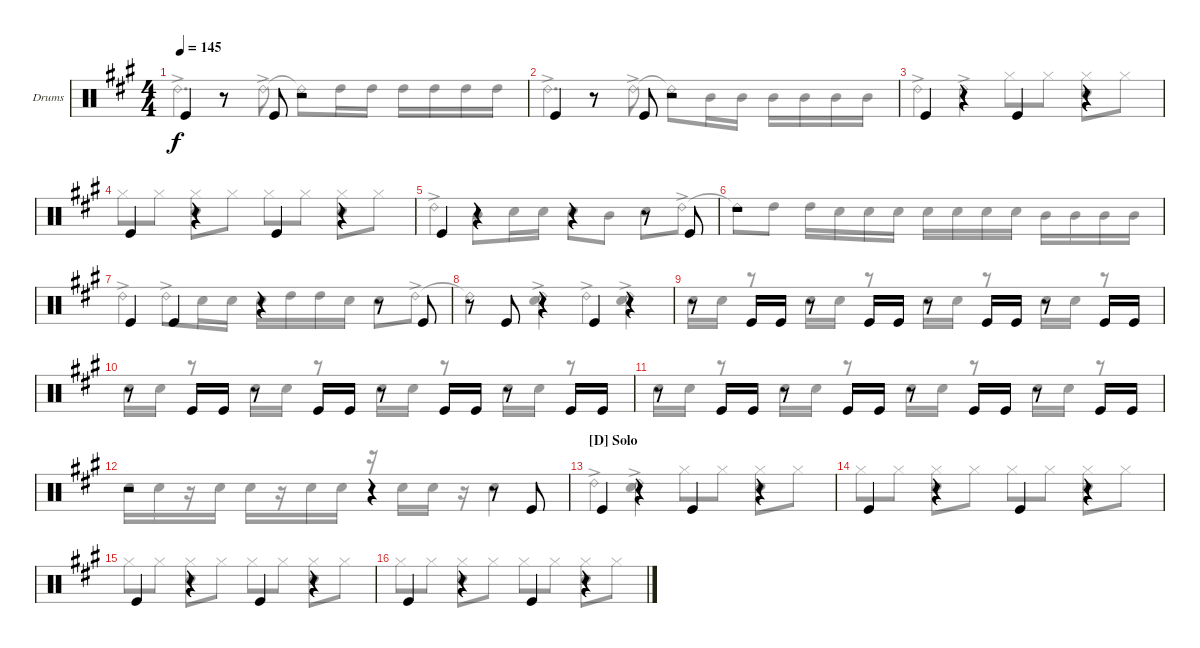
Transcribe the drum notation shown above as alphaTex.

\bracketExtendMode groupsimilarinstruments
\firstSystemTrackNameOrientation horizontal
\otherSystemsTrackNameOrientation horizontal
\track ("Drumkit" "Drums") {instrument percussion}
\staff {score}
\articulation defaults
\voice
\ts (4 4)
\tempo 145
\clef neutral
\scale
1.05801
\ks a "Kick (hit)".4{dy f}
r.8 "Kick (hit)".8 r.2 |
\scale
0.941992 "Kick (hit)".4 r.8 "Kick (hit)".8 r.2 |
\scale
1.05801 "Kick (hit)".4 r.4 "Kick (hit)".4 r.4 |
\scale
0.941992 "Kick (hit)".4 r.4 "Kick (hit)".4 r.4 |
\scale
1.05801 "Kick (hit)".4 r.4 r.4 r.8 "Kick (hit)".8 |
\scale
0.941992 r.1 |
\scale
1.05801 "Kick (hit)".4 "Kick (hit)".4 r.4 r.8 "Kick (hit)".8 |
\scale
0.941992 r.8 "Kick (hit)".8 r.4 "Kick (hit)".4 r.4 |
\scale
1.05801 r.8 "Kick (hit)".16 "Kick (hit)".16 r.8 "Kick (hit)".16 "Kick (hit)".16 r.8 "Kick (hit)".16 "Kick (hit)".16 r.8 "Kick (hit)".16 "Kick (hit)".16 |
\scale
0.941992 r.8 "Kick (hit)".16 "Kick (hit)".16 r.8 "Kick (hit)".16 "Kick (hit)".16 r.8 "Kick (hit)".16 "Kick (hit)".16 r.8 "Kick (hit)".16 "Kick (hit)".16 |
\scale
1.05801 r.8 "Kick (hit)".16 "Kick (hit)".16 r.8 "Kick (hit)".16 "Kick (hit)".16 r.8 "Kick (hit)".16 "Kick (hit)".16 r.8 "Kick (hit)".16 "Kick (hit)".16 |
\scale
0.941992 r.2 r.4 r.8 "Kick (hit)".8 |
\section ("D" "Solo")
\scale
1.05801 "Kick (hit)".4 r.4 "Kick (hit)".4 r.4 |
\scale
0.941992 "Kick (hit)".4 r.4 "Kick (hit)".4 r.4 |
\scale
1.05801 "Kick (hit)".4 r.4 "Kick (hit)".4 r.4 |
\scale
0.941992 "Kick (hit)".4 r.4 "Kick (hit)".4 r.4
\voice
\clef neutral
\ottava regular
\simile none
\scale
1.05801
\ks a "Ride (bell) 2"{ac}.4{d dy f} "Ride (bell) 2"{ac}.8 "Ride (bell) 2"{t}.8 "High Tom (hit)".16 "High Tom (hit)".16 "High Tom (hit)".16 "High Tom (hit)".16 "High Tom (hit)".16 "High Tom (hit)".16
|
\scale
0.941992 "Ride (bell) 2"{ac}.4{d} "Ride (bell) 2"{ac}.8 "Ride (bell) 2"{t}.8 "Mid Tom (hit)".16 "Mid Tom (hit)".16 "Mid Tom (hit)".16 "Mid Tom (hit)".16 "Mid Tom (hit)".16 "Mid Tom (hit)".16 |
\scale
1.05801 "Ride (bell) 2"{ac}.4 "Ride (bell) 2"{ac}.4 "Hi-Hat (closed)".8 "Hi-Hat (closed)".8 ("Snare (hit) 2" "Hi-Hat (closed)").8 "Hi-Hat (closed)".8 |
\scale
0.941992 "Hi-Hat (closed)".8 "Hi-Hat (closed)".8 ("Snare (hit) 2" "Hi-Hat (closed)").8 "Hi-Hat (closed)".8 "Hi-Hat (closed)".8 "Hi-Hat (closed)".8 ("Snare (hit) 2" "Hi-Hat (closed)").8 "Hi-Hat (closed)".8 |
\scale
1.05801 "Ride (bell) 2"{ac}.4 "Mid Tom (hit)".8 "Snare (hit) 2".16 "Snare (hit) 2".16 "Snare (hit) 2".8 "Mid Tom (hit)".8 "Snare (hit) 2".8 "Ride (bell) 2"{ac}.8 |
\scale
0.941992 "Ride (bell) 2"{t}.8 "High Tom (hit)".8 "High Tom (hit)".16 "Snare (hit) 2".16 "Snare (hit) 2".16 "Snare (hit) 2".16 "Snare (hit) 2".16 "Snare (hit) 2".16 "Snare (hit) 2".16 "Snare (hit) 2".16 "Mid Tom (hit)".16 "Mid Tom (hit)".16 "Mid Tom (hit)".16 "Mid Tom (hit)".16 |
\scale
1.05801 "Ride (bell) 2"{ac}.4 "Ride (bell) 2"{ac}.8 "Snare (hit) 2".16 "Snare (hit) 2".16 "Snare (hit) 2".16 "High Tom (hit)".16 "High Tom (hit)".16 "Snare (hit) 2".16 "Snare (hit) 2".8 "Ride (bell) 2"{ac}.8 |
\scale
0.941992 "Ride (bell) 2"{t}.4 ("Ride (bell) 2" "Snare (hit) 2"{ac}).4 "Ride (bell) 2"{ac}.4 ("Ride (bell) 2"{ac} "Snare (hit) 2").4 |
\scale
1.05801 "Snare (hit) 2".16 "Snare (hit) 2".16 r.8 "Snare (hit) 2".16 "Snare (hit) 2".16 r.8 "Snare (hit) 2".16 "Snare (hit) 2".16 r.8 "Snare (hit) 2".16 "Snare (hit) 2".16 r.8 |
\scale
0.941992 "Snare (hit) 2".16 "Snare (hit) 2".16 r.8 "Snare (hit) 2".16 "Snare (hit) 2".16 r.8 "Snare (hit) 2".16 "Snare (hit) 2".16 r.8 "Snare (hit) 2".16 "Snare (hit) 2".16 r.8 |
\scale
1.05801 "Snare (hit) 2".16 "Snare (hit) 2".16 r.8 "Snare (hit) 2".16 "Snare (hit) 2".16 r.8 "Snare (hit) 2".16 "Snare (hit) 2".16 r.8 "Snare (hit) 2".16 "Snare (hit) 2".16 r.8 |
\scale
0.941992 "Snare (hit) 2".16 "Snare (hit) 2".16 r.16 "Snare (hit) 2".16 "Snare (hit) 2".16 r.16 "Snare (hit) 2".16 "Snare (hit) 2".16 r.16 "Snare (hit) 2".16 "Snare (hit) 2".16 r.16 "Snare (hit) 2".4 |
\scale
1.05801 "Ride (bell) 2"{ac}.4 ("Ride (bell) 2"{ac} "Snare (hit) 2"{ac}).4 "Hi-Hat (closed)".8 "Hi-Hat (closed)".8 ("Hi-Hat (closed)" "Snare (hit) 2").8 "Hi-Hat (closed)".8 |
\scale
0.941992 "Hi-Hat (closed)".8 "Hi-Hat (closed)".8 ("Hi-Hat (closed)" "Snare (hit) 2").8 "Hi-Hat (closed)".8 "Hi-Hat (closed)".8 "Hi-Hat (closed)".8 ("Hi-Hat (closed)" "Snare (hit) 2").8 "Hi-Hat (closed)".8 |
\scale
1.05801 "Hi-Hat (closed)".8 "Hi-Hat (closed)".8 ("Hi-Hat (closed)" "Snare (hit) 2").8 "Hi-Hat (closed)".8 "Hi-Hat (closed)".8 "Hi-Hat (closed)".8 ("Hi-Hat (closed)" "Snare (hit) 2").8 "Hi-Hat (closed)".8 |
\scale
0.941992 "Hi-Hat (closed)".8 "Hi-Hat (closed)".8 ("Hi-Hat (closed)" "Snare (hit) 2").8 "Hi-Hat (closed)".8 "Hi-Hat (closed)".8 "Hi-Hat (closed)".8 ("Hi-Hat (closed)" "Snare (hit) 2").8 "Hi-Hat (closed)".8
